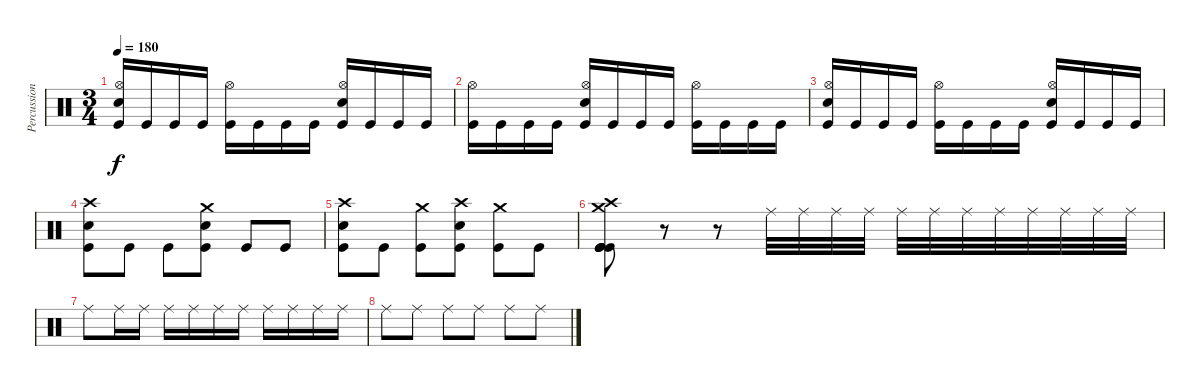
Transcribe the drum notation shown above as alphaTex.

\track ("Percussion" "Percussion") {instrument percussion}
\staff {score}
\articulation defaults
\ts (3 4)
\tempo 180
\clef neutral
\ks c
("Electric Snare (hit)" "Hi-Hat (open)" "Kick (hit)").16{dy f} "Kick (hit)".16 "Kick (hit)".16 "Kick (hit)".16 ("Hi-Hat (open)" "Kick (hit)").16 "Kick (hit)".16 "Kick (hit)".16 "Kick (hit)".16 ("Electric Snare (hit)" "Hi-Hat (open)" "Kick (hit)").16 "Kick (hit)".16 "Kick (hit)".16 "Kick (hit)".16 |
("Hi-Hat (open)" "Kick (hit)").16 "Kick (hit)".16 "Kick (hit)".16 "Kick (hit)".16 ("Electric Snare (hit)" "Hi-Hat (open)" "Kick (hit)").16 "Kick (hit)".16 "Kick (hit)".16 "Kick (hit)".16 ("Hi-Hat (open)" "Kick (hit)").16 "Kick (hit)".16 "Kick (hit)".16 "Kick (hit)".16 |
("Electric Snare (hit)" "Hi-Hat (open)" "Kick (hit)").16 "Kick (hit)".16 "Kick (hit)".16 "Kick (hit)".16 ("Hi-Hat (open)" "Kick (hit)").16 "Kick (hit)".16 "Kick (hit)".16 "Kick (hit)".16 ("Electric Snare (hit)" "Hi-Hat (open)" "Kick (hit)").16 "Kick (hit)".16 "Kick (hit)".16 "Kick (hit)".16 |
("Electric Snare (hit)" "Crash high (hit)" "Kick (hit)").8 "Kick (hit)".8 "Kick (hit)".8 ("Electric Snare (hit)" "Crash medium (hit)" "Kick (hit)").8 "Kick (hit)".8 "Kick (hit)".8 |
("Electric Snare (hit)" "Crash high (hit)" "Kick (hit)").8 "Kick (hit)".8 ("Crash medium (hit)" "Kick (hit)").8 ("Electric Snare (hit)" "Crash high (hit)" "Kick (hit)").8 ("Crash medium (hit)" "Kick (hit)").8 "Kick (hit)".8 |
("Kick (hit)" "Kick (hit)" "Crash high (hit)" "Kick (hit)" "Kick (hit)" "Crash medium (hit)").8 r.8 r.8 "Ride (middle)".32 "Ride (middle)".32 "Ride (middle)".32 "Ride (middle)".32 "Ride (middle)".32 "Ride (middle)".32 "Ride (middle)".32 "Ride (middle)".32 "Ride (middle)".32 "Ride (middle)".32 "Ride (middle)".32 "Ride (middle)".32 |
"Ride (middle)".8 "Ride (middle)".16 "Ride (middle)".16 "Ride (middle)".16 "Ride (middle)".16 "Ride (middle)".16 "Ride (middle)".16 "Ride (middle)".16 "Ride (middle)".16 "Ride (middle)".16 "Ride (middle)".16 |
"Ride (middle)".8 "Ride (middle)".8 "Ride (middle)".8 "Ride (middle)".8 "Ride (middle)".8 "Ride (middle)".8
